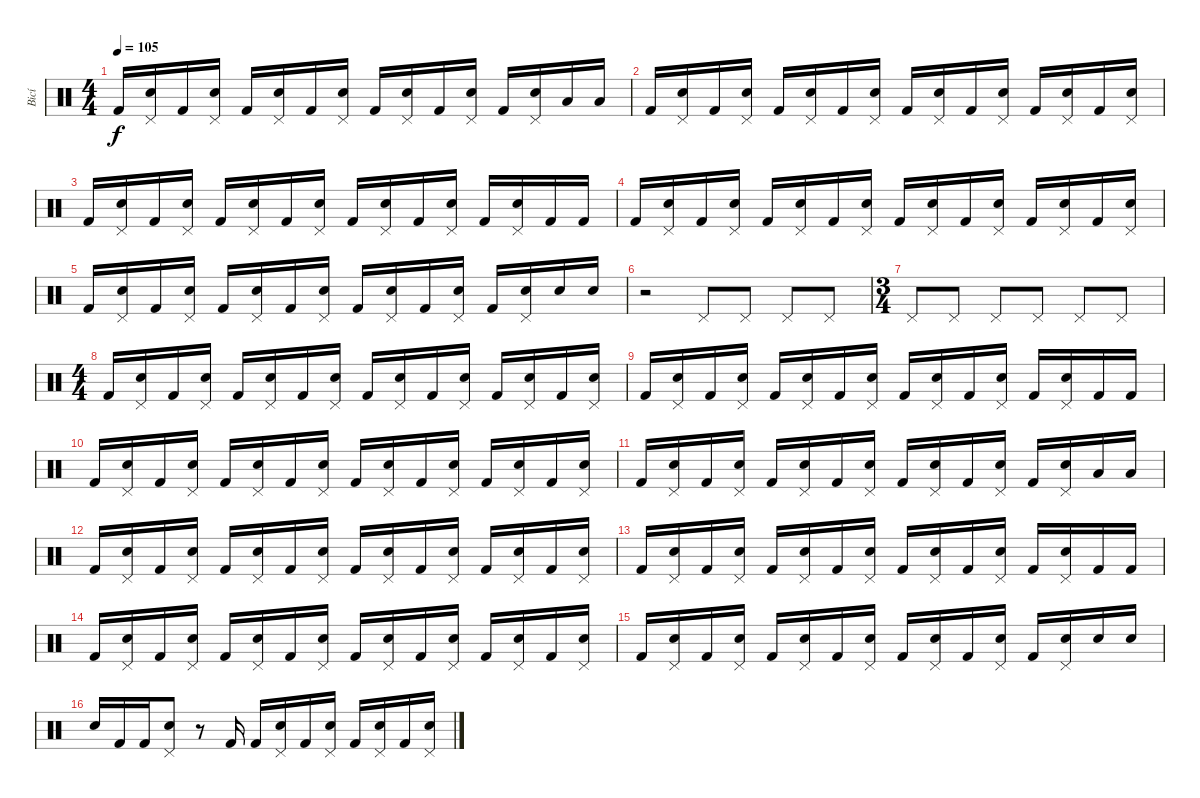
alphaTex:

\track ("Bicí" "Bicí") {instrument percussion}
\staff {score}
\articulation defaults
\ts (4 4)
\tempo 105
\clef neutral
\ks c "Kick (hit) 2".16{dy f}
("Pedal Hi-Hat (hit)" "Snare (hit) 2").16 "Kick (hit) 2".16 ("Pedal Hi-Hat (hit)" "Snare (hit) 2").16 "Kick (hit) 2".16 ("Pedal Hi-Hat (hit)" "Snare (hit) 2").16 "Kick (hit) 2".16 ("Pedal Hi-Hat (hit)" "Snare (hit) 2").16 "Kick (hit) 2".16 ("Pedal Hi-Hat (hit)" "Snare (hit) 2").16 "Kick (hit) 2".16 ("Pedal Hi-Hat (hit)" "Snare (hit) 2").16 "Kick (hit) 2".16 ("Pedal Hi-Hat (hit)" "Snare (hit) 2").16 "Low Tom (hit)".16 "Low Tom (hit)".16 |
"Kick (hit) 2".16 ("Pedal Hi-Hat (hit)" "Snare (hit) 2").16 "Kick (hit) 2".16 ("Pedal Hi-Hat (hit)" "Snare (hit) 2").16 "Kick (hit) 2".16 ("Pedal Hi-Hat (hit)" "Snare (hit) 2").16 "Kick (hit) 2".16 ("Pedal Hi-Hat (hit)" "Snare (hit) 2").16 "Kick (hit) 2".16 ("Pedal Hi-Hat (hit)" "Snare (hit) 2").16 "Kick (hit) 2".16 ("Pedal Hi-Hat (hit)" "Snare (hit) 2").16 "Kick (hit) 2".16 ("Pedal Hi-Hat (hit)" "Snare (hit) 2").16 "Kick (hit) 2".16 ("Pedal Hi-Hat (hit)" "Snare (hit) 2").16 |
"Kick (hit) 2".16 ("Pedal Hi-Hat (hit)" "Snare (hit) 2").16 "Kick (hit) 2".16 ("Pedal Hi-Hat (hit)" "Snare (hit) 2").16 "Kick (hit) 2".16 ("Pedal Hi-Hat (hit)" "Snare (hit) 2").16 "Kick (hit) 2".16 ("Pedal Hi-Hat (hit)" "Snare (hit) 2").16 "Kick (hit) 2".16 ("Pedal Hi-Hat (hit)" "Snare (hit) 2").16 "Kick (hit) 2".16 ("Pedal Hi-Hat (hit)" "Snare (hit) 2").16 "Kick (hit) 2".16 ("Pedal Hi-Hat (hit)" "Snare (hit) 2").16 "Kick (hit) 2".16 "Kick (hit) 2".16 |
"Kick (hit) 2".16 ("Pedal Hi-Hat (hit)" "Snare (hit) 2").16 "Kick (hit) 2".16 ("Pedal Hi-Hat (hit)" "Snare (hit) 2").16 "Kick (hit) 2".16 ("Pedal Hi-Hat (hit)" "Snare (hit) 2").16 "Kick (hit) 2".16 ("Pedal Hi-Hat (hit)" "Snare (hit) 2").16 "Kick (hit) 2".16 ("Pedal Hi-Hat (hit)" "Snare (hit) 2").16 "Kick (hit) 2".16 ("Pedal Hi-Hat (hit)" "Snare (hit) 2").16 "Kick (hit) 2".16 ("Pedal Hi-Hat (hit)" "Snare (hit) 2").16 "Kick (hit) 2".16 ("Pedal Hi-Hat (hit)" "Snare (hit) 2").16 |
"Kick (hit) 2".16 ("Pedal Hi-Hat (hit)" "Snare (hit) 2").16 "Kick (hit) 2".16 ("Pedal Hi-Hat (hit)" "Snare (hit) 2").16 "Kick (hit) 2".16 ("Pedal Hi-Hat (hit)" "Snare (hit) 2").16 "Kick (hit) 2".16 ("Pedal Hi-Hat (hit)" "Snare (hit) 2").16 "Kick (hit) 2".16 ("Pedal Hi-Hat (hit)" "Snare (hit) 2").16 "Kick (hit) 2".16 ("Pedal Hi-Hat (hit)" "Snare (hit) 2").16 "Kick (hit) 2".16 ("Pedal Hi-Hat (hit)" "Snare (hit) 2").16 "Snare (hit) 2".16 "Snare (hit) 2".16 |
r.2 "Pedal Hi-Hat (hit)".8 "Pedal Hi-Hat (hit)".8 "Pedal Hi-Hat (hit)".8 "Pedal Hi-Hat (hit)".8 |
\ts (3 4)
"Pedal Hi-Hat (hit)".8 "Pedal Hi-Hat (hit)".8 "Pedal Hi-Hat (hit)".8 "Pedal Hi-Hat (hit)".8 "Pedal Hi-Hat (hit)".8 "Pedal Hi-Hat (hit)".8 |
\ts (4 4)
"Kick (hit) 2".16 ("Pedal Hi-Hat (hit)" "Snare (hit) 2").16 "Kick (hit) 2".16 ("Pedal Hi-Hat (hit)" "Snare (hit) 2").16 "Kick (hit) 2".16 ("Pedal Hi-Hat (hit)" "Snare (hit) 2").16 "Kick (hit) 2".16 ("Pedal Hi-Hat (hit)" "Snare (hit) 2").16 "Kick (hit) 2".16 ("Pedal Hi-Hat (hit)" "Snare (hit) 2").16 "Kick (hit) 2".16 ("Pedal Hi-Hat (hit)" "Snare (hit) 2").16 "Kick (hit) 2".16 ("Pedal Hi-Hat (hit)" "Snare (hit) 2").16 "Kick (hit) 2".16 ("Pedal Hi-Hat (hit)" "Snare (hit) 2").16 |
"Kick (hit) 2".16 ("Pedal Hi-Hat (hit)" "Snare (hit) 2").16 "Kick (hit) 2".16 ("Pedal Hi-Hat (hit)" "Snare (hit) 2").16 "Kick (hit) 2".16 ("Pedal Hi-Hat (hit)" "Snare (hit) 2").16 "Kick (hit) 2".16 ("Pedal Hi-Hat (hit)" "Snare (hit) 2").16 "Kick (hit) 2".16 ("Pedal Hi-Hat (hit)" "Snare (hit) 2").16 "Kick (hit) 2".16 ("Pedal Hi-Hat (hit)" "Snare (hit) 2").16 "Kick (hit) 2".16 ("Pedal Hi-Hat (hit)" "Snare (hit) 2").16 "Kick (hit) 2".16 "Kick (hit) 2".16 |
"Kick (hit) 2".16 ("Pedal Hi-Hat (hit)" "Snare (hit) 2").16 "Kick (hit) 2".16 ("Pedal Hi-Hat (hit)" "Snare (hit) 2").16 "Kick (hit) 2".16 ("Pedal Hi-Hat (hit)" "Snare (hit) 2").16 "Kick (hit) 2".16 ("Pedal Hi-Hat (hit)" "Snare (hit) 2").16 "Kick (hit) 2".16 ("Pedal Hi-Hat (hit)" "Snare (hit) 2").16 "Kick (hit) 2".16 ("Pedal Hi-Hat (hit)" "Snare (hit) 2").16 "Kick (hit) 2".16 ("Pedal Hi-Hat (hit)" "Snare (hit) 2").16 "Kick (hit) 2".16 ("Pedal Hi-Hat (hit)" "Snare (hit) 2").16 |
"Kick (hit) 2".16 ("Pedal Hi-Hat (hit)" "Snare (hit) 2").16 "Kick (hit) 2".16 ("Pedal Hi-Hat (hit)" "Snare (hit) 2").16 "Kick (hit) 2".16 ("Pedal Hi-Hat (hit)" "Snare (hit) 2").16 "Kick (hit) 2".16 ("Pedal Hi-Hat (hit)" "Snare (hit) 2").16 "Kick (hit) 2".16 ("Pedal Hi-Hat (hit)" "Snare (hit) 2").16 "Kick (hit) 2".16 ("Pedal Hi-Hat (hit)" "Snare (hit) 2").16 "Kick (hit) 2".16 ("Pedal Hi-Hat (hit)" "Snare (hit) 2").16 "Low Tom (hit)".16 "Low Tom (hit)".16 |
"Kick (hit) 2".16 ("Pedal Hi-Hat (hit)" "Snare (hit) 2").16 "Kick (hit) 2".16 ("Pedal Hi-Hat (hit)" "Snare (hit) 2").16 "Kick (hit) 2".16 ("Pedal Hi-Hat (hit)" "Snare (hit) 2").16 "Kick (hit) 2".16 ("Pedal Hi-Hat (hit)" "Snare (hit) 2").16 "Kick (hit) 2".16 ("Pedal Hi-Hat (hit)" "Snare (hit) 2").16 "Kick (hit) 2".16 ("Pedal Hi-Hat (hit)" "Snare (hit) 2").16 "Kick (hit) 2".16 ("Pedal Hi-Hat (hit)" "Snare (hit) 2").16 "Kick (hit) 2".16 ("Pedal Hi-Hat (hit)" "Snare (hit) 2").16 |
"Kick (hit) 2".16 ("Pedal Hi-Hat (hit)" "Snare (hit) 2").16 "Kick (hit) 2".16 ("Pedal Hi-Hat (hit)" "Snare (hit) 2").16 "Kick (hit) 2".16 ("Pedal Hi-Hat (hit)" "Snare (hit) 2").16 "Kick (hit) 2".16 ("Pedal Hi-Hat (hit)" "Snare (hit) 2").16 "Kick (hit) 2".16 ("Pedal Hi-Hat (hit)" "Snare (hit) 2").16 "Kick (hit) 2".16 ("Pedal Hi-Hat (hit)" "Snare (hit) 2").16 "Kick (hit) 2".16 ("Pedal Hi-Hat (hit)" "Snare (hit) 2").16 "Kick (hit) 2".16 "Kick (hit) 2".16 |
"Kick (hit) 2".16 ("Pedal Hi-Hat (hit)" "Snare (hit) 2").16 "Kick (hit) 2".16 ("Pedal Hi-Hat (hit)" "Snare (hit) 2").16 "Kick (hit) 2".16 ("Pedal Hi-Hat (hit)" "Snare (hit) 2").16 "Kick (hit) 2".16 ("Pedal Hi-Hat (hit)" "Snare (hit) 2").16 "Kick (hit) 2".16 ("Pedal Hi-Hat (hit)" "Snare (hit) 2").16 "Kick (hit) 2".16 ("Pedal Hi-Hat (hit)" "Snare (hit) 2").16 "Kick (hit) 2".16 ("Pedal Hi-Hat (hit)" "Snare (hit) 2").16 "Kick (hit) 2".16 ("Pedal Hi-Hat (hit)" "Snare (hit) 2").16 |
"Kick (hit) 2".16 ("Pedal Hi-Hat (hit)" "Snare (hit) 2").16 "Kick (hit) 2".16 ("Pedal Hi-Hat (hit)" "Snare (hit) 2").16 "Kick (hit) 2".16 ("Pedal Hi-Hat (hit)" "Snare (hit) 2").16 "Kick (hit) 2".16 ("Pedal Hi-Hat (hit)" "Snare (hit) 2").16 "Kick (hit) 2".16 ("Pedal Hi-Hat (hit)" "Snare (hit) 2").16 "Kick (hit) 2".16 ("Pedal Hi-Hat (hit)" "Snare (hit) 2").16 "Kick (hit) 2".16 ("Pedal Hi-Hat (hit)" "Snare (hit) 2").16 "Snare (hit) 2".16 "Snare (hit) 2".16 |
"Snare (hit) 2".16 "Kick (hit) 2".16 "Kick (hit) 2".16 ("Pedal Hi-Hat (hit)" "Snare (hit) 2").8 r.8 "Kick (hit) 2".16 "Kick (hit) 2".16 ("Pedal Hi-Hat (hit)" "Snare (hit) 2").16 "Kick (hit) 2".16 ("Pedal Hi-Hat (hit)" "Snare (hit) 2").16 "Kick (hit) 2".16 ("Pedal Hi-Hat (hit)" "Snare (hit) 2").16 "Kick (hit) 2".16 ("Pedal Hi-Hat (hit)" "Snare (hit) 2").16
